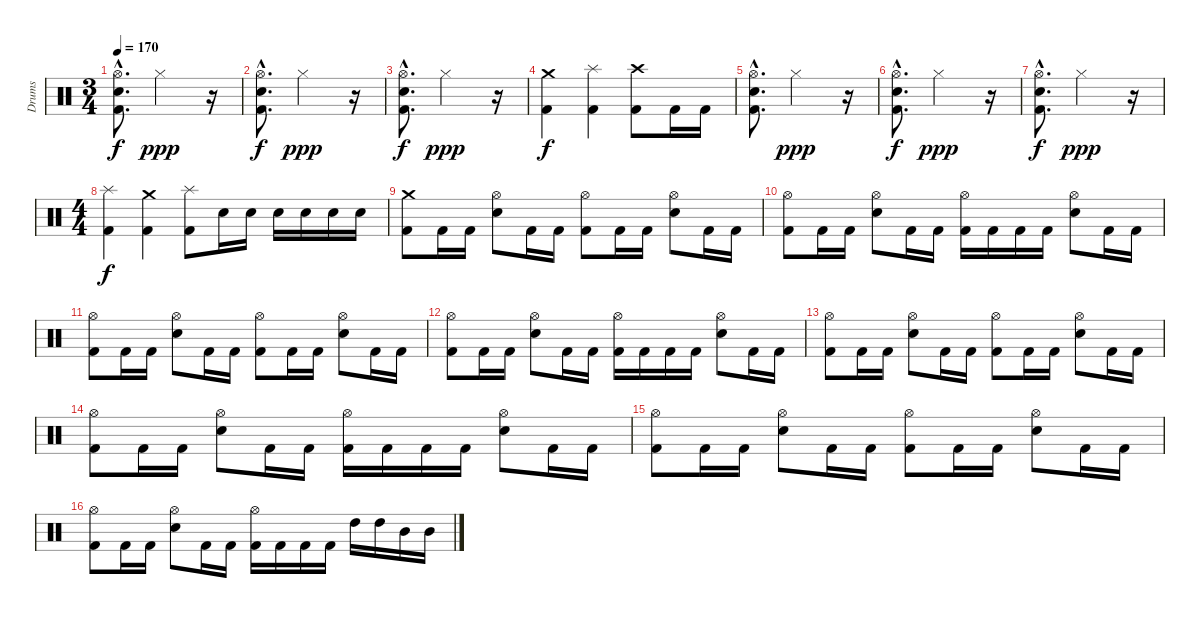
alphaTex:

\track ("Drums" "Drums") {instrument percussion}
\staff {score}
\articulation defaults
\ts (3 4)
\tempo 170
\clef neutral
\ks c
("Kick (hit) 2"{hac} "Snare (hit) 2"{hac} "Hi-Hat (open)"{hac}).8{d dy f} "Hi-Hat (closed)".2{dy ppp} r.16 |
("Kick (hit) 2"{hac} "Snare (hit) 2"{hac} "Hi-Hat (open)"{hac}).8{d dy f} "Hi-Hat (closed)".2{dy ppp} r.16 |
("Kick (hit) 2"{hac} "Snare (hit) 2"{hac} "Hi-Hat (open)"{hac}).8{d dy f} "Hi-Hat (closed)".2{dy ppp} r.16 |
("Kick (hit) 2" "Crash medium (hit)").4{dy f} ("Kick (hit) 2" "Splash (hit)").4 ("Kick (hit) 2" "Crash high (hit)").8 "Kick (hit) 2".16 "Kick (hit) 2".16 |
("Kick (hit) 2"{hac} "Snare (hit) 2"{hac} "Hi-Hat (open)"{hac}).8{d} "Hi-Hat (closed)".2{dy ppp} r.16 |
("Kick (hit) 2"{hac} "Snare (hit) 2"{hac} "Hi-Hat (open)"{hac}).8{d dy f} "Hi-Hat (closed)".2{dy ppp} r.16 |
("Kick (hit) 2"{hac} "Snare (hit) 2"{hac} "Hi-Hat (open)"{hac}).8{d dy f} "Hi-Hat (closed)".2{dy ppp} r.16 |
\ts (4 4)
("Kick (hit) 2" "Splash (hit)").4{dy f} ("Kick (hit) 2" "Crash medium (hit)").4 ("Kick (hit) 2" "Splash (hit)").8 "Snare (hit) 2".16 "Snare (hit) 2".16 "Snare (hit) 2".16 "Snare (hit) 2".16 "Snare (hit) 2".16 "Snare (hit) 2".16 |
\section ("" "")
("Kick (hit) 2" "Crash medium (hit)").8 "Kick (hit) 2".16 "Kick (hit) 2".16 ("Snare (hit) 2" "Hi-Hat (open)").8 "Kick (hit) 2".16 "Kick (hit) 2".16 ("Kick (hit) 2" "Hi-Hat (open)").8 "Kick (hit) 2".16 "Kick (hit) 2".16 ("Snare (hit) 2" "Hi-Hat (open)").8 "Kick (hit) 2".16 "Kick (hit) 2".16 |
("Kick (hit) 2" "Hi-Hat (open)").8 "Kick (hit) 2".16 "Kick (hit) 2".16 ("Snare (hit) 2" "Hi-Hat (open)").8 "Kick (hit) 2".16 "Kick (hit) 2".16 ("Kick (hit) 2" "Hi-Hat (open)").16 "Kick (hit) 2".16 "Kick (hit) 2".16 "Kick (hit) 2".16 ("Snare (hit) 2" "Hi-Hat (open)").8 "Kick (hit) 2".16 "Kick (hit) 2".16 |
("Kick (hit) 2" "Hi-Hat (open)").8 "Kick (hit) 2".16 "Kick (hit) 2".16 ("Snare (hit) 2" "Hi-Hat (open)").8 "Kick (hit) 2".16 "Kick (hit) 2".16 ("Kick (hit) 2" "Hi-Hat (open)").8 "Kick (hit) 2".16 "Kick (hit) 2".16 ("Snare (hit) 2" "Hi-Hat (open)").8 "Kick (hit) 2".16 "Kick (hit) 2".16 |
("Kick (hit) 2" "Hi-Hat (open)").8 "Kick (hit) 2".16 "Kick (hit) 2".16 ("Snare (hit) 2" "Hi-Hat (open)").8 "Kick (hit) 2".16 "Kick (hit) 2".16 ("Kick (hit) 2" "Hi-Hat (open)").16 "Kick (hit) 2".16 "Kick (hit) 2".16 "Kick (hit) 2".16 ("Snare (hit) 2" "Hi-Hat (open)").8 "Kick (hit) 2".16 "Kick (hit) 2".16 |
("Kick (hit) 2" "Hi-Hat (open)").8 "Kick (hit) 2".16 "Kick (hit) 2".16 ("Snare (hit) 2" "Hi-Hat (open)").8 "Kick (hit) 2".16 "Kick (hit) 2".16 ("Kick (hit) 2" "Hi-Hat (open)").8 "Kick (hit) 2".16 "Kick (hit) 2".16 ("Snare (hit) 2" "Hi-Hat (open)").8 "Kick (hit) 2".16 "Kick (hit) 2".16 |
("Kick (hit) 2" "Hi-Hat (open)").8 "Kick (hit) 2".16 "Kick (hit) 2".16 ("Snare (hit) 2" "Hi-Hat (open)").8 "Kick (hit) 2".16 "Kick (hit) 2".16 ("Kick (hit) 2" "Hi-Hat (open)").16 "Kick (hit) 2".16 "Kick (hit) 2".16 "Kick (hit) 2".16 ("Snare (hit) 2" "Hi-Hat (open)").8 "Kick (hit) 2".16 "Kick (hit) 2".16 |
("Kick (hit) 2" "Hi-Hat (open)").8 "Kick (hit) 2".16 "Kick (hit) 2".16 ("Snare (hit) 2" "Hi-Hat (open)").8 "Kick (hit) 2".16 "Kick (hit) 2".16 ("Kick (hit) 2" "Hi-Hat (open)").8 "Kick (hit) 2".16 "Kick (hit) 2".16 ("Snare (hit) 2" "Hi-Hat (open)").8 "Kick (hit) 2".16 "Kick (hit) 2".16 |
("Kick (hit) 2" "Hi-Hat (open)").8 "Kick (hit) 2".16 "Kick (hit) 2".16 ("Snare (hit) 2" "Hi-Hat (open)").8 "Kick (hit) 2".16 "Kick (hit) 2".16 ("Kick (hit) 2" "Hi-Hat (open)").16 "Kick (hit) 2".16 "Kick (hit) 2".16 "Kick (hit) 2".16 "High Tom (hit)".16 "High Tom (hit)".16 "Mid Tom (hit)".16 "Mid Tom (hit)".16
